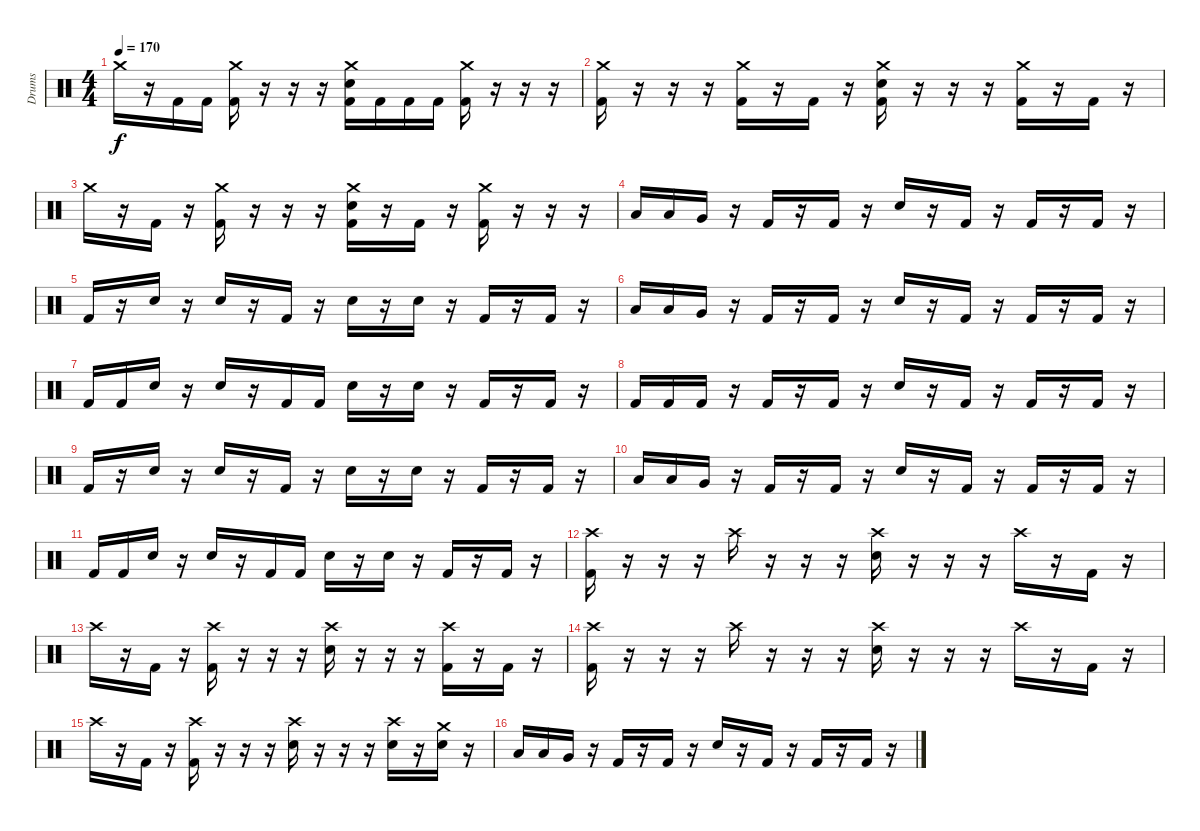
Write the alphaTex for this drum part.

\track ("Drums" "Drums") {instrument percussion}
\staff {score}
\articulation defaults
\ts (4 4)
\tempo 170
\clef neutral
\ks c "Crash medium (hit)".16{dy f}
r.16 "Kick (hit) 2".16 "Kick (hit) 2".16 ("Crash medium (hit)" "Kick (hit) 2").16 r.16 r.16 r.16 ("Crash medium (hit)" "Electric Snare (hit)" "Kick (hit) 2").16 "Kick (hit) 2".16 "Kick (hit) 2".16 "Kick (hit) 2".16 ("Crash medium (hit)" "Kick (hit) 2").16 r.16 r.16 r.16 |
("Crash medium (hit)" "Kick (hit) 2").16 r.16 r.16 r.16 ("Crash medium (hit)" "Kick (hit) 2").16 r.16 "Kick (hit) 2".16 r.16 ("Crash medium (hit)" "Electric Snare (hit)" "Kick (hit) 2").16 r.16 r.16 r.16 ("Crash medium (hit)" "Kick (hit) 2").16 r.16 "Kick (hit) 2".16 r.16 |
"Crash medium (hit)".16 r.16 "Kick (hit) 2".16 r.16 ("Crash medium (hit)" "Kick (hit) 2").16 r.16 r.16 r.16 ("Crash medium (hit)" "Electric Snare (hit)" "Kick (hit) 2").16 r.16 "Kick (hit) 2".16 r.16 ("Crash medium (hit)" "Kick (hit) 2").16 r.16 r.16 r.16 |
"Low Tom (hit)".16 "Low Tom (hit)".16 "Very Low Tom (hit)".16 r.16 "Kick (hit) 2".16 r.16 "Kick (hit) 2".16 r.16 "Electric Snare (hit)".16 r.16 "Kick (hit) 2".16 r.16 "Kick (hit) 2".16 r.16 "Kick (hit) 2".16 r.16 |
"Kick (hit) 2".16 r.16 "Electric Snare (hit)".16 r.16 "Electric Snare (hit)".16 r.16 "Kick (hit) 2".16 r.16 "Electric Snare (hit)".16 r.16 "Electric Snare (hit)".16 r.16 "Kick (hit) 2".16 r.16 "Kick (hit) 2".16 r.16 |
"Low Tom (hit)".16 "Low Tom (hit)".16 "Very Low Tom (hit)".16 r.16 "Kick (hit) 2".16 r.16 "Kick (hit) 2".16 r.16 "Electric Snare (hit)".16 r.16 "Kick (hit) 2".16 r.16 "Kick (hit) 2".16 r.16 "Kick (hit) 2".16 r.16 |
"Kick (hit) 2".16 "Kick (hit) 2".16 "Electric Snare (hit)".16 r.16 "Electric Snare (hit)".16 r.16 "Kick (hit) 2".16 "Kick (hit) 2".16 "Electric Snare (hit)".16 r.16 "Electric Snare (hit)".16 r.16 "Kick (hit) 2".16 r.16 "Kick (hit) 2".16 r.16 |
"Kick (hit) 2".16 "Kick (hit) 2".16 "Kick (hit) 2".16 r.16 "Kick (hit) 2".16 r.16 "Kick (hit) 2".16 r.16 "Electric Snare (hit)".16 r.16 "Kick (hit) 2".16 r.16 "Kick (hit) 2".16 r.16 "Kick (hit) 2".16 r.16 |
"Kick (hit) 2".16 r.16 "Electric Snare (hit)".16 r.16 "Electric Snare (hit)".16 r.16 "Kick (hit) 2".16 r.16 "Electric Snare (hit)".16 r.16 "Electric Snare (hit)".16 r.16 "Kick (hit) 2".16 r.16 "Kick (hit) 2".16 r.16 |
"Low Tom (hit)".16 "Low Tom (hit)".16 "Very Low Tom (hit)".16 r.16 "Kick (hit) 2".16 r.16 "Kick (hit) 2".16 r.16 "Electric Snare (hit)".16 r.16 "Kick (hit) 2".16 r.16 "Kick (hit) 2".16 r.16 "Kick (hit) 2".16 r.16 |
"Kick (hit) 2".16 "Kick (hit) 2".16 "Electric Snare (hit)".16 r.16 "Electric Snare (hit)".16 r.16 "Kick (hit) 2".16 "Kick (hit) 2".16 "Electric Snare (hit)".16 r.16 "Electric Snare (hit)".16 r.16 "Kick (hit) 2".16 r.16 "Kick (hit) 2".16 r.16 |
("Crash high (hit)" "Kick (hit) 2").16 r.16 r.16 r.16 "Crash high (hit)".16 r.16 r.16 r.16 ("Crash high (hit)" "Electric Snare (hit)").16 r.16 r.16 r.16 "Crash high (hit)".16 r.16 "Kick (hit) 2".16 r.16 |
"Crash high (hit)".16 r.16 "Kick (hit) 2".16 r.16 ("Crash high (hit)" "Kick (hit) 2").16 r.16 r.16 r.16 ("Crash high (hit)" "Electric Snare (hit)").16 r.16 r.16 r.16 ("Crash high (hit)" "Kick (hit) 2").16 r.16 "Kick (hit) 2".16 r.16 |
("Crash high (hit)" "Kick (hit) 2").16 r.16 r.16 r.16 "Crash high (hit)".16 r.16 r.16 r.16 ("Crash high (hit)" "Electric Snare (hit)").16 r.16 r.16 r.16 "Crash high (hit)".16 r.16 "Kick (hit) 2".16 r.16 |
"Crash high (hit)".16 r.16 "Kick (hit) 2".16 r.16 ("Crash high (hit)" "Kick (hit) 2").16 r.16 r.16 r.16 ("Crash high (hit)" "Electric Snare (hit)").16 r.16 r.16 r.16 ("Crash high (hit)" "Electric Snare (hit)").16 r.16 ("Crash medium (hit)" "Electric Snare (hit)").16 r.16 |
"Low Tom (hit)".16 "Low Tom (hit)".16 "Very Low Tom (hit)".16 r.16 "Kick (hit) 2".16 r.16 "Kick (hit) 2".16 r.16 "Electric Snare (hit)".16 r.16 "Kick (hit) 2".16 r.16 "Kick (hit) 2".16 r.16 "Kick (hit) 2".16 r.16
